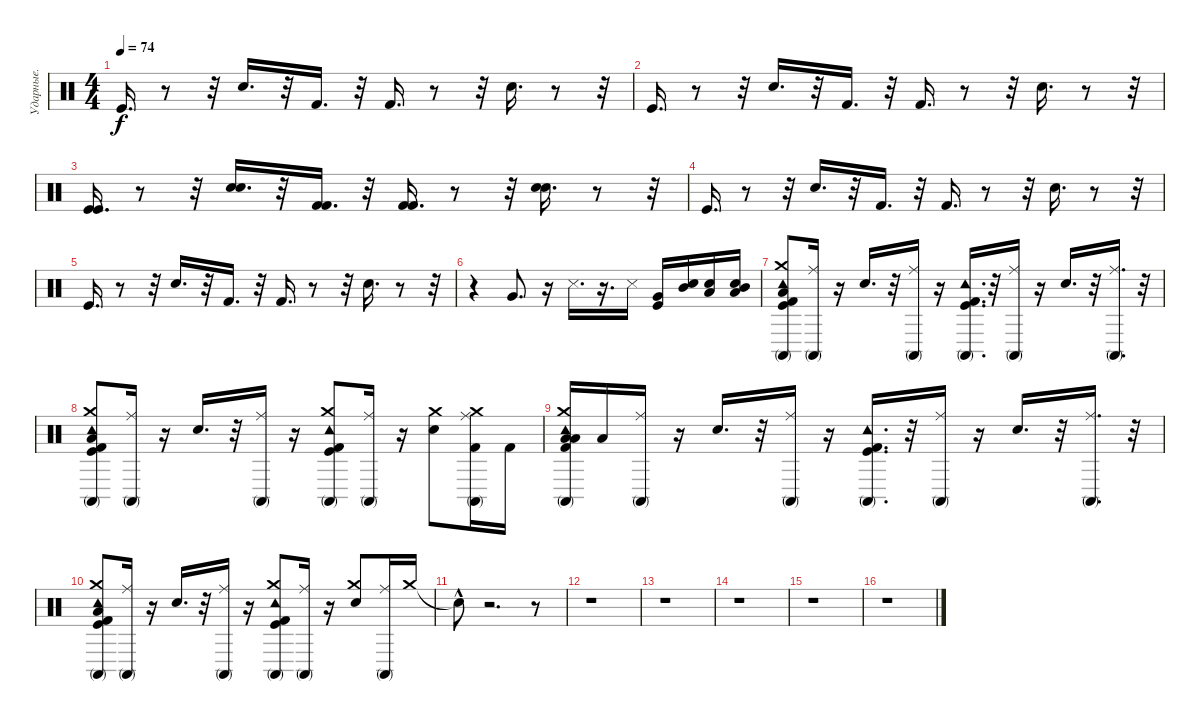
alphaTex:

\track ("Ударные." "Ударные.") {instrument percussion}
\staff {score}
\articulation defaults
\ts (4 4)
\tempo 74
\clef neutral
\ks c "Kick (hit)".16{d dy f}
r.8 r.32 "Electric Snare (hit)".16{d} r.32 "Kick (hit) 2".16{d} r.32 "Kick (hit) 2".16{d} r.8 r.32 "Electric Snare (hit)".16{d} r.8 r.32 |
"Kick (hit)".16{d} r.8 r.32 "Electric Snare (hit)".16{d} r.32 "Kick (hit) 2".16{d} r.32 "Kick (hit) 2".16{d} r.8 r.32 "Electric Snare (hit)".16{d} r.8 r.32 |
("Kick (hit)" "Kick (hit)").16{d} r.8 r.32 ("Electric Snare (hit)" "Electric Snare (hit)").16{d} r.32 ("Kick (hit) 2" "Kick (hit) 2").16{d} r.32 ("Kick (hit) 2" "Kick (hit) 2").16{d} r.8 r.32 ("Electric Snare (hit)" "Electric Snare (hit)").16{d} r.8 r.32 |
"Kick (hit)".16{d} r.8 r.32 "Electric Snare (hit)".16{d} r.32 "Kick (hit) 2".16{d} r.32 "Kick (hit) 2".16{d} r.8 r.32 "Electric Snare (hit)".16{d} r.8 r.32 |
"Kick (hit)".16{d} r.8 r.32 "Electric Snare (hit)".16{d} r.32 "Kick (hit) 2".16{d} r.32 "Kick (hit) 2".16{d} r.8 r.32 "Electric Snare (hit)".16{d} r.8 r.32 |
r.4 "Very Low Tom (hit)".8{d} r.16 "Metronome (hit)".16{d} r.16{d} "Metronome (hit)".16 ("Kick (hit)" "Very Low Tom (hit)").16 ("Mid Tom (hit)" "Snare (hit) 2").16 ("Low Floor Tom (hit)" "Snare (hit) 2").16 ("Mid Tom (hit)" "Low Floor Tom (hit)" "Snare (hit) 2").16 |
("Crash medium (hit)" "Low Floor Tom (hit)" "Conga high (mute)" "Tambourine (hit)" "Kick (hit) 2" "Kick (hit)").8 ("Conga high (mute)" "Ride (middle)").16 r.16 "Snare (hit) 2".16{d} r.32 ("Conga high (mute)" "Ride (middle)").16 r.16 ("Conga high (mute)" "Tambourine (hit)" "Kick (hit) 2" "Kick (hit)").16{d} r.32 ("Conga high (mute)" "Ride (middle)").16 r.16 "Snare (hit) 2".16{d} r.32 ("Conga high (mute)" "Ride (middle)").16{d} r.32 |
("Crash medium (hit)" "Low Floor Tom (hit)" "Conga high (mute)" "Tambourine (hit)" "Kick (hit) 2" "Kick (hit)").8 ("Conga high (mute)" "Ride (middle)").16 r.16 "Snare (hit) 2".16{d} r.32 ("Conga high (mute)" "Ride (middle)").16 r.16 ("Crash medium (hit)" "Conga high (mute)" "Tambourine (hit)" "Kick (hit) 2" "Kick (hit)").8 ("Conga high (mute)" "Ride (middle)").16 r.16 ("Crash medium (hit)" "Snare (hit) 2").8 ("Crash medium (hit)" "Kick (hit) 2" "Conga high (mute)" "Ride (middle)").16 "Kick (hit) 2".16 |
("Low Tom (hit)" "Crash medium (hit)" "Low Floor Tom (hit)" "Conga high (mute)" "Tambourine (hit)" "Kick (hit) 2").16 "Low Floor Tom (hit)".16 ("Conga high (mute)" "Ride (middle)").16 r.16 "Snare (hit) 2".16{d} r.32 ("Conga high (mute)" "Ride (middle)").16 r.16 ("Conga high (mute)" "Tambourine (hit)" "Kick (hit) 2" "Kick (hit)").16{d} r.32 ("Conga high (mute)" "Ride (middle)").16 r.16 "Snare (hit) 2".16{d} r.32 ("Conga high (mute)" "Ride (middle)").16{d} r.32 |
("Crash medium (hit)" "Low Floor Tom (hit)" "Conga high (mute)" "Tambourine (hit)" "Kick (hit) 2" "Kick (hit)").8 ("Conga high (mute)" "Ride (middle)").16 r.16 "Snare (hit) 2".16{d} r.32 ("Conga high (mute)" "Ride (middle)").16 r.16 ("Crash medium (hit)" "Conga high (mute)" "Tambourine (hit)" "Kick (hit) 2" "Kick (hit)").8 ("Conga high (mute)" "Ride (middle)").16 r.16 ("Crash medium (hit)" "Snare (hit) 2").8 ("Conga high (mute)" "Ride (middle)").16 "Crash medium (hit)".16 |
"Snare (hit)"{hac t}.8 r.2{d} r.8 |
r.1 |
r.1 |
r.1 |
r.1 |
r.1
